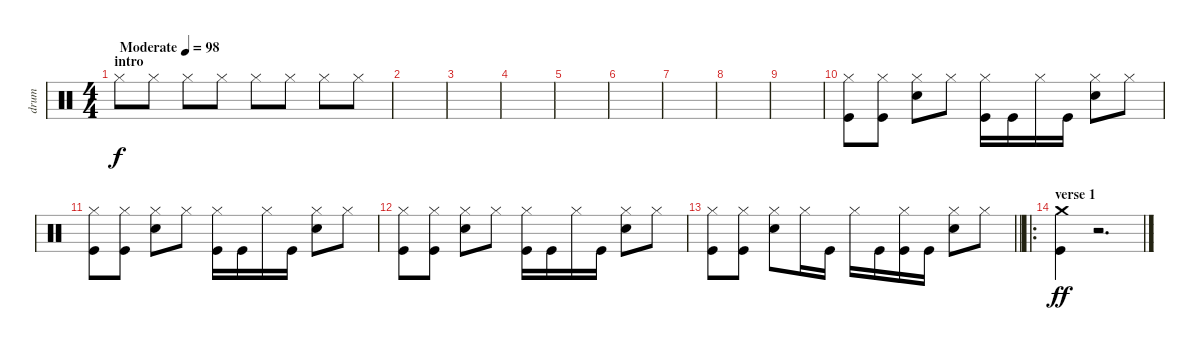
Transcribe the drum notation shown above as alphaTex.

\track ("drum" "drum") {instrument percussion}
\staff {score}
\articulation defaults
\ts (4 4)
\section ("" "intro ")
\tempo (98 "Moderate")
\clef neutral
\ks c "Hi-Hat (closed)".8{dy f} "Hi-Hat (closed)".8 "Hi-Hat (closed)".8 "Hi-Hat (closed)".8 "Hi-Hat (closed)".8 "Hi-Hat (closed)".8 "Hi-Hat (closed)".8 "Hi-Hat (closed)".8
|
|
|
|
|
|
|
|
|
("Hi-Hat (closed)" "Kick (hit)").8 ("Hi-Hat (closed)" "Kick (hit)").8 ("Hi-Hat (closed)" "Electric Snare (hit)").8 "Hi-Hat (closed)".8 ("Hi-Hat (closed)" "Kick (hit)").16 "Kick (hit)".16 "Hi-Hat (closed)".16 "Kick (hit)".16 ("Hi-Hat (closed)" "Electric Snare (hit)").8 "Hi-Hat (closed)".8 |
("Hi-Hat (closed)" "Kick (hit)").8 ("Hi-Hat (closed)" "Kick (hit)").8 ("Hi-Hat (closed)" "Electric Snare (hit)").8 "Hi-Hat (closed)".8 ("Hi-Hat (closed)" "Kick (hit)").16 "Kick (hit)".16 "Hi-Hat (closed)".16 "Kick (hit)".16 ("Hi-Hat (closed)" "Electric Snare (hit)").8 "Hi-Hat (closed)".8 |
("Hi-Hat (closed)" "Kick (hit)").8 ("Hi-Hat (closed)" "Kick (hit)").8 ("Hi-Hat (closed)" "Electric Snare (hit)").8 "Hi-Hat (closed)".8 ("Hi-Hat (closed)" "Kick (hit)").16 "Kick (hit)".16 "Hi-Hat (closed)".16 "Kick (hit)".16 ("Hi-Hat (closed)" "Electric Snare (hit)").8 "Hi-Hat (closed)".8 |
\barLineRight lightlight
("Hi-Hat (closed)" "Kick (hit)").8 ("Hi-Hat (closed)" "Kick (hit)").8 ("Hi-Hat (closed)" "Electric Snare (hit)").8 "Hi-Hat (closed)".16 "Kick (hit)".16 "Hi-Hat (closed)".16 "Kick (hit)".16 ("Hi-Hat (closed)" "Kick (hit)").16 "Kick (hit)".16 ("Hi-Hat (closed)" "Electric Snare (hit)").8 "Hi-Hat (closed)".8 |
\ro
\section ("" "verse 1")
("Crash medium (hit)" "Kick (hit)").4{dy ff} r.2{d}
